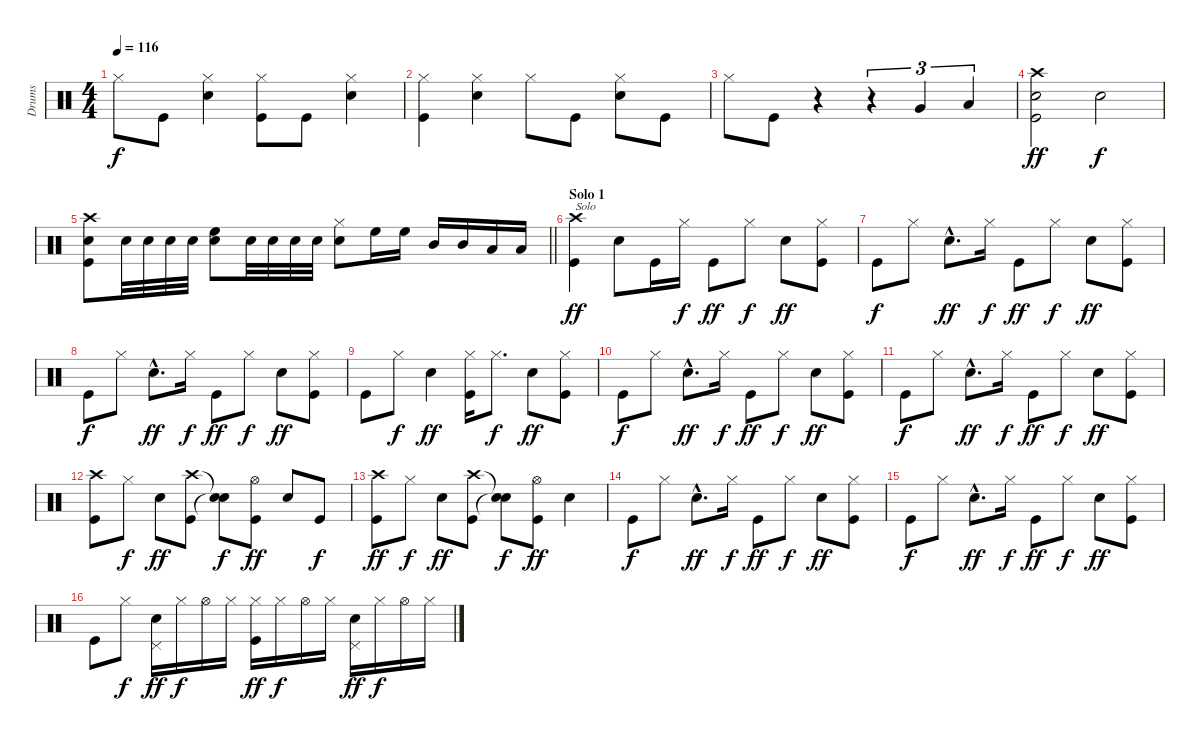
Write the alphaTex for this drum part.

\track ("Drums" "Drums") {instrument percussion}
\staff {score}
\articulation defaults
\ts (4 4)
\tempo 116
\clef neutral
\ks c "Hi-Hat (closed)".8{dy f} "Kick (hit)".8
("Hi-Hat (closed)" "Snare (hit) 2").4 ("Hi-Hat (closed)" "Kick (hit)").8 "Kick (hit)".8 ("Hi-Hat (closed)" "Snare (hit) 2").4 |
("Hi-Hat (closed)" "Kick (hit)").4 ("Hi-Hat (closed)" "Snare (hit) 2").4 "Hi-Hat (closed)".8 "Kick (hit)".8 ("Hi-Hat (closed)" "Snare (hit) 2").8 "Kick (hit)".8 |
"Hi-Hat (closed)".8 "Kick (hit)".8 r.4 r.4{tu (3 2)} "Very Low Tom (hit)".4{tu (3 2)} "Low Floor Tom (hit)".4{tu (3 2)} |
("Crash high (hit)" "Snare (hit) 2" "Kick (hit)").2{dy ff} "Snare (hit) 2".2{dy f} |
\barLineRight lightlight
("Crash high (hit)" "Snare (hit) 2" "Kick (hit)").8 "Snare (hit) 2".32 "Snare (hit) 2".32 "Snare (hit) 2".32 "Snare (hit) 2".32 ("Snare (hit) 2" "High Floor Tom (hit)").8 "Snare (hit) 2".32 "Snare (hit) 2".32 "Snare (hit) 2".32 "Snare (hit) 2".32 ("Hi-Hat (closed)" "Snare (hit) 2").8 "High Floor Tom (hit)".16 "High Floor Tom (hit)".16 "Mid Tom (hit)".16 "Mid Tom (hit)".16 "Low Floor Tom (hit)".16 "Low Tom (hit)".16 |
\section ("" "Solo 1")
("Crash high (hit)" "Kick (hit)").4{txt "Solo" dy ff} "Snare (hit) 2".8 "Kick (hit)".16 "Hi-Hat (closed)".16{dy f} "Kick (hit)".8{dy ff} "Hi-Hat (closed)".8{dy f} "Snare (hit) 2".8{dy ff} ("Hi-Hat (closed)" "Kick (hit)").8 |
"Kick (hit)".8{dy f} "Hi-Hat (closed)".8 "Snare (hit) 2"{hac}.8{d dy ff} "Hi-Hat (closed)".16{dy f} "Kick (hit)".8{dy ff} "Hi-Hat (closed)".8{dy f} "Snare (hit) 2".8{dy ff} ("Hi-Hat (closed)" "Kick (hit)").8 |
"Kick (hit)".8{dy f} "Hi-Hat (closed)".8 "Snare (hit) 2"{hac}.8{d dy ff} "Hi-Hat (closed)".16{dy f} "Kick (hit)".8{dy ff} "Hi-Hat (closed)".8{dy f} "Snare (hit) 2".8{dy ff} ("Hi-Hat (closed)" "Kick (hit)").8 |
"Kick (hit)".8 "Hi-Hat (closed)".8{dy f} "Snare (hit) 2".4{dy ff} ("Hi-Hat (closed)" "Kick (hit)").16 "Hi-Hat (closed)".8{d dy f} "Snare (hit) 2".8{dy ff} ("Hi-Hat (closed)" "Kick (hit)").8 |
"Kick (hit)".8{dy f} "Hi-Hat (closed)".8 "Snare (hit) 2"{hac}.8{d dy ff} "Hi-Hat (closed)".16{dy f} "Kick (hit)".8{dy ff} "Hi-Hat (closed)".8{dy f} "Snare (hit) 2".8{dy ff} ("Hi-Hat (closed)" "Kick (hit)").8 |
"Kick (hit)".8{dy f} "Hi-Hat (closed)".8 "Snare (hit) 2"{hac}.8{d dy ff} "Hi-Hat (closed)".16{dy f} "Kick (hit)".8{dy ff} "Hi-Hat (closed)".8{dy f} "Snare (hit) 2".8{dy ff} ("Hi-Hat (closed)" "Kick (hit)").8 |
("Crash high (hit)" "Kick (hit)").8 "Hi-Hat (closed)".8{dy f} "Snare (hit) 2".8{dy ff} ("Crash high (hit)" "Kick (hit)").8 ("Snare (hit)"{t} "Snare (hit)"{t}).8{dy f} ("Hi-Hat (open)" "Kick (hit)").8{dy ff} "Snare (hit) 2".8 "Kick (hit)".8{dy f} |
("Crash high (hit)" "Kick (hit)").8{dy ff} "Hi-Hat (closed)".8{dy f} "Snare (hit) 2".8{dy ff} ("Crash high (hit)" "Kick (hit)").8 ("Snare (hit)"{t} "Snare (hit)"{t}).8{dy f} ("Hi-Hat (open)" "Kick (hit)").8{dy ff} "Snare (hit) 2".4 |
"Kick (hit)".8{dy f} "Hi-Hat (closed)".8 "Snare (hit) 2"{hac}.8{d dy ff} "Hi-Hat (closed)".16{dy f} "Kick (hit)".8{dy ff} "Hi-Hat (closed)".8{dy f} "Snare (hit) 2".8{dy ff} ("Hi-Hat (closed)" "Kick (hit)").8 |
"Kick (hit)".8{dy f} "Hi-Hat (closed)".8 "Snare (hit) 2"{hac}.8{d dy ff} "Hi-Hat (closed)".16{dy f} "Kick (hit)".8{dy ff} "Hi-Hat (closed)".8{dy f} "Snare (hit) 2".8{dy ff} ("Hi-Hat (closed)" "Kick (hit)").8 |
"Kick (hit)".8 "Hi-Hat (closed)".8{dy f} ("Pedal Hi-Hat (hit)" "Snare (hit) 2").16{dy ff} "Hi-Hat (closed)".16{dy f} "Hi-Hat (open)".16 "Hi-Hat (closed)".16 ("Hi-Hat (closed)" "Kick (hit)").16{dy ff} "Hi-Hat (closed)".16{dy f} "Hi-Hat (open)".16 "Hi-Hat (closed)".16 ("Pedal Hi-Hat (hit)" "Snare (hit) 2").16{dy ff} "Hi-Hat (closed)".16{dy f} "Hi-Hat (open)".16 "Hi-Hat (closed)".16
